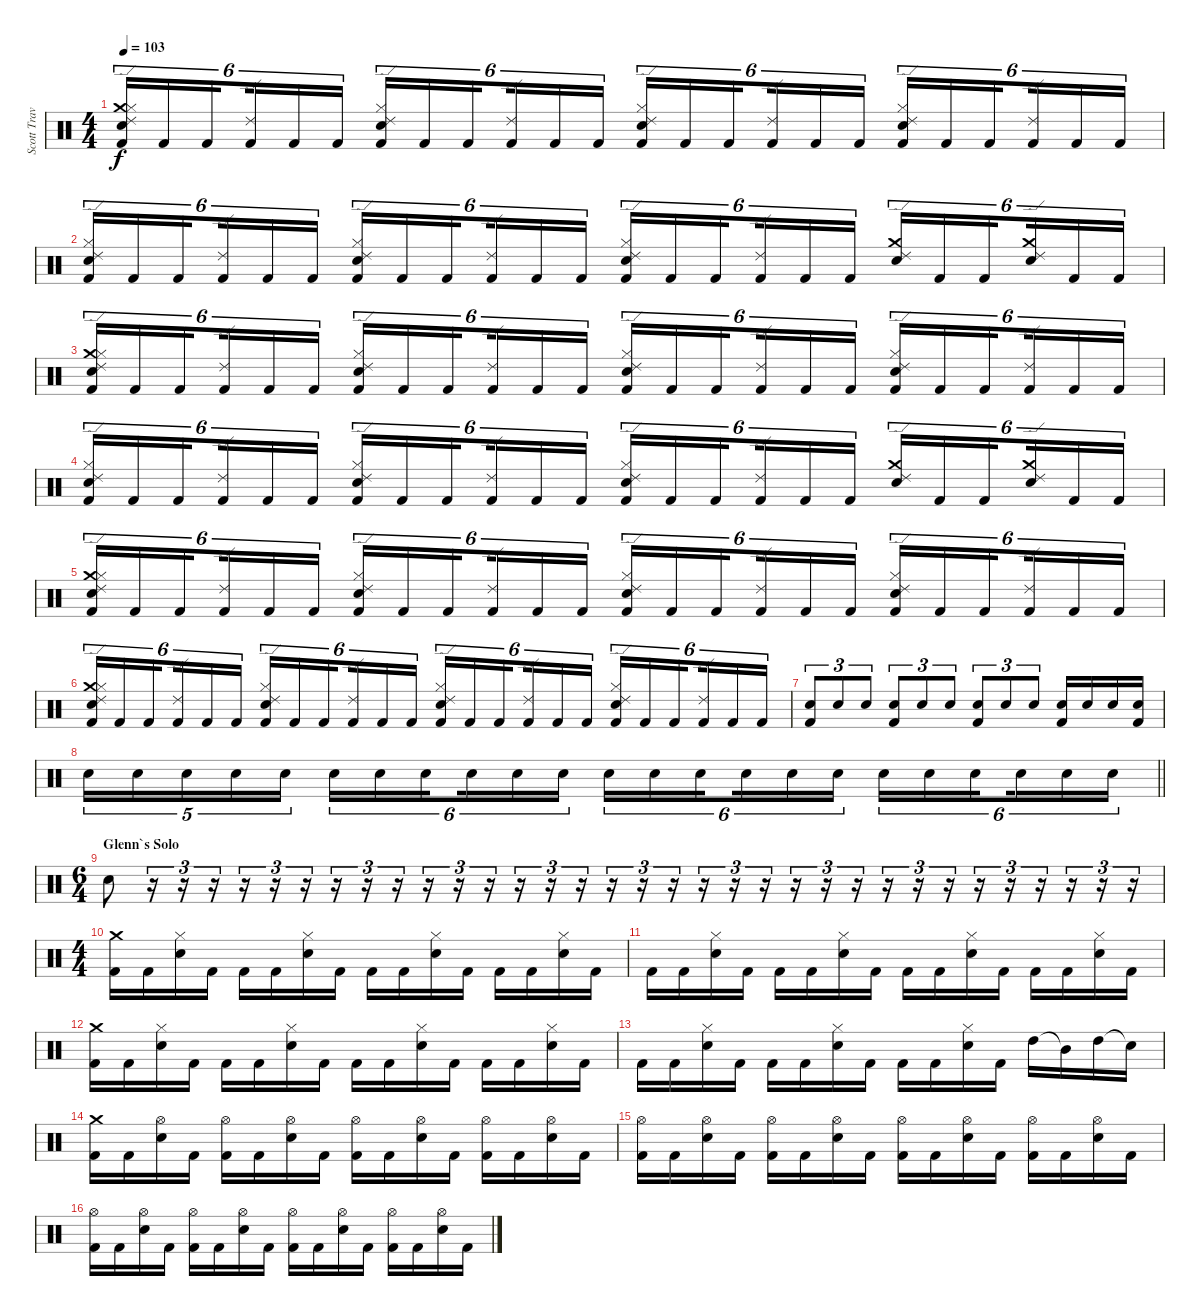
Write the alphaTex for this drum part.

\track ("Scott Travis" "Scott Trav") {instrument percussion}
\staff {score}
\articulation defaults
\ts (4 4)
\tempo 103
\clef neutral
\ks c
("Ride (edge) 2" "Crash medium (hit)" "Hi-Hat (closed)" "Snare (hit) 2" "Kick (hit) 2").16{tu (6 4) dy f} "Kick (hit) 2".16{tu (6 4)} "Kick (hit) 2".16{tu (6 4) beam splitsecondary} ("Ride (edge) 2" "Kick (hit) 2").16{tu (6 4)} "Kick (hit) 2".16{tu (6 4)} "Kick (hit) 2".16{tu (6 4)} ("Ride (edge) 2" "Hi-Hat (closed)" "Snare (hit) 2" "Kick (hit) 2").16{tu (6 4)} "Kick (hit) 2".16{tu (6 4)} "Kick (hit) 2".16{tu (6 4) beam splitsecondary} ("Ride (edge) 2" "Kick (hit) 2").16{tu (6 4)} "Kick (hit) 2".16{tu (6 4)} "Kick (hit) 2".16{tu (6 4)} ("Ride (edge) 2" "Hi-Hat (closed)" "Snare (hit) 2" "Kick (hit) 2").16{tu (6 4)} "Kick (hit) 2".16{tu (6 4)} "Kick (hit) 2".16{tu (6 4) beam splitsecondary} ("Ride (edge) 2" "Kick (hit) 2").16{tu (6 4)} "Kick (hit) 2".16{tu (6 4)} "Kick (hit) 2".16{tu (6 4)} ("Ride (edge) 2" "Hi-Hat (closed)" "Snare (hit) 2" "Kick (hit) 2").16{tu (6 4)} "Kick (hit) 2".16{tu (6 4)} "Kick (hit) 2".16{tu (6 4) beam splitsecondary} ("Ride (edge) 2" "Kick (hit) 2").16{tu (6 4)} "Kick (hit) 2".16{tu (6 4)} "Kick (hit) 2".16{tu (6 4)} |
("Ride (edge) 2" "Hi-Hat (closed)" "Snare (hit) 2" "Kick (hit) 2").16{tu (6 4)} "Kick (hit) 2".16{tu (6 4)} "Kick (hit) 2".16{tu (6 4) beam splitsecondary} ("Ride (edge) 2" "Kick (hit) 2").16{tu (6 4)} "Kick (hit) 2".16{tu (6 4)} "Kick (hit) 2".16{tu (6 4)} ("Ride (edge) 2" "Hi-Hat (closed)" "Snare (hit) 2" "Kick (hit) 2").16{tu (6 4)} "Kick (hit) 2".16{tu (6 4)} "Kick (hit) 2".16{tu (6 4) beam splitsecondary} ("Ride (edge) 2" "Kick (hit) 2").16{tu (6 4)} "Kick (hit) 2".16{tu (6 4)} "Kick (hit) 2".16{tu (6 4)} ("Ride (edge) 2" "Hi-Hat (closed)" "Snare (hit) 2" "Kick (hit) 2").16{tu (6 4)} "Kick (hit) 2".16{tu (6 4)} "Kick (hit) 2".16{tu (6 4) beam splitsecondary} ("Ride (edge) 2" "Kick (hit) 2").16{tu (6 4)} "Kick (hit) 2".16{tu (6 4)} "Kick (hit) 2".16{tu (6 4)} ("Ride (edge) 2" "Crash medium (hit)" "Snare (hit) 2").16{tu (6 4)} "Kick (hit) 2".16{tu (6 4)} "Kick (hit) 2".16{tu (6 4) beam splitsecondary} ("Ride (edge) 2" "Crash medium (hit)" "Snare (hit) 2").16{tu (6 4)} "Kick (hit) 2".16{tu (6 4)} "Kick (hit) 2".16{tu (6 4)} |
("Ride (edge) 2" "Crash medium (hit)" "Hi-Hat (closed)" "Snare (hit) 2" "Kick (hit) 2").16{tu (6 4)} "Kick (hit) 2".16{tu (6 4)} "Kick (hit) 2".16{tu (6 4) beam splitsecondary} ("Ride (edge) 2" "Kick (hit) 2").16{tu (6 4)} "Kick (hit) 2".16{tu (6 4)} "Kick (hit) 2".16{tu (6 4)} ("Ride (edge) 2" "Hi-Hat (closed)" "Snare (hit) 2" "Kick (hit) 2").16{tu (6 4)} "Kick (hit) 2".16{tu (6 4)} "Kick (hit) 2".16{tu (6 4) beam splitsecondary} ("Ride (edge) 2" "Kick (hit) 2").16{tu (6 4)} "Kick (hit) 2".16{tu (6 4)} "Kick (hit) 2".16{tu (6 4)} ("Ride (edge) 2" "Hi-Hat (closed)" "Snare (hit) 2" "Kick (hit) 2").16{tu (6 4)} "Kick (hit) 2".16{tu (6 4)} "Kick (hit) 2".16{tu (6 4) beam splitsecondary} ("Ride (edge) 2" "Kick (hit) 2").16{tu (6 4)} "Kick (hit) 2".16{tu (6 4)} "Kick (hit) 2".16{tu (6 4)} ("Ride (edge) 2" "Hi-Hat (closed)" "Snare (hit) 2" "Kick (hit) 2").16{tu (6 4)} "Kick (hit) 2".16{tu (6 4)} "Kick (hit) 2".16{tu (6 4) beam splitsecondary} ("Ride (edge) 2" "Kick (hit) 2").16{tu (6 4)} "Kick (hit) 2".16{tu (6 4)} "Kick (hit) 2".16{tu (6 4)} |
("Ride (edge) 2" "Hi-Hat (closed)" "Snare (hit) 2" "Kick (hit) 2").16{tu (6 4)} "Kick (hit) 2".16{tu (6 4)} "Kick (hit) 2".16{tu (6 4) beam splitsecondary} ("Ride (edge) 2" "Kick (hit) 2").16{tu (6 4)} "Kick (hit) 2".16{tu (6 4)} "Kick (hit) 2".16{tu (6 4)} ("Ride (edge) 2" "Hi-Hat (closed)" "Snare (hit) 2" "Kick (hit) 2").16{tu (6 4)} "Kick (hit) 2".16{tu (6 4)} "Kick (hit) 2".16{tu (6 4) beam splitsecondary} ("Ride (edge) 2" "Kick (hit) 2").16{tu (6 4)} "Kick (hit) 2".16{tu (6 4)} "Kick (hit) 2".16{tu (6 4)} ("Ride (edge) 2" "Hi-Hat (closed)" "Snare (hit) 2" "Kick (hit) 2").16{tu (6 4)} "Kick (hit) 2".16{tu (6 4)} "Kick (hit) 2".16{tu (6 4) beam splitsecondary} ("Ride (edge) 2" "Kick (hit) 2").16{tu (6 4)} "Kick (hit) 2".16{tu (6 4)} "Kick (hit) 2".16{tu (6 4)} ("Ride (edge) 2" "Crash medium (hit)" "Snare (hit) 2").16{tu (6 4)} "Kick (hit) 2".16{tu (6 4)} "Kick (hit) 2".16{tu (6 4) beam splitsecondary} ("Ride (edge) 2" "Crash medium (hit)" "Snare (hit) 2").16{tu (6 4)} "Kick (hit) 2".16{tu (6 4)} "Kick (hit) 2".16{tu (6 4)} |
("Ride (edge) 2" "Crash medium (hit)" "Hi-Hat (closed)" "Snare (hit) 2" "Kick (hit) 2").16{tu (6 4)} "Kick (hit) 2".16{tu (6 4)} "Kick (hit) 2".16{tu (6 4) beam splitsecondary} ("Ride (edge) 2" "Kick (hit) 2").16{tu (6 4)} "Kick (hit) 2".16{tu (6 4)} "Kick (hit) 2".16{tu (6 4)} ("Ride (edge) 2" "Hi-Hat (closed)" "Snare (hit) 2" "Kick (hit) 2").16{tu (6 4)} "Kick (hit) 2".16{tu (6 4)} "Kick (hit) 2".16{tu (6 4) beam splitsecondary} ("Ride (edge) 2" "Kick (hit) 2").16{tu (6 4)} "Kick (hit) 2".16{tu (6 4)} "Kick (hit) 2".16{tu (6 4)} ("Ride (edge) 2" "Hi-Hat (closed)" "Snare (hit) 2" "Kick (hit) 2").16{tu (6 4)} "Kick (hit) 2".16{tu (6 4)} "Kick (hit) 2".16{tu (6 4) beam splitsecondary} ("Ride (edge) 2" "Kick (hit) 2").16{tu (6 4)} "Kick (hit) 2".16{tu (6 4)} "Kick (hit) 2".16{tu (6 4)} ("Ride (edge) 2" "Hi-Hat (closed)" "Snare (hit) 2" "Kick (hit) 2").16{tu (6 4)} "Kick (hit) 2".16{tu (6 4)} "Kick (hit) 2".16{tu (6 4) beam splitsecondary} ("Ride (edge) 2" "Kick (hit) 2").16{tu (6 4)} "Kick (hit) 2".16{tu (6 4)} "Kick (hit) 2".16{tu (6 4)} |
("Ride (edge) 2" "Crash medium (hit)" "Hi-Hat (closed)" "Snare (hit) 2" "Kick (hit) 2").16{tu (6 4)} "Kick (hit) 2".16{tu (6 4)} "Kick (hit) 2".16{tu (6 4) beam splitsecondary} ("Ride (edge) 2" "Kick (hit) 2").16{tu (6 4)} "Kick (hit) 2".16{tu (6 4)} "Kick (hit) 2".16{tu (6 4)} ("Ride (edge) 2" "Hi-Hat (closed)" "Snare (hit) 2" "Kick (hit) 2").16{tu (6 4)} "Kick (hit) 2".16{tu (6 4)} "Kick (hit) 2".16{tu (6 4) beam splitsecondary} ("Ride (edge) 2" "Kick (hit) 2").16{tu (6 4)} "Kick (hit) 2".16{tu (6 4)} "Kick (hit) 2".16{tu (6 4)} ("Ride (edge) 2" "Hi-Hat (closed)" "Snare (hit) 2" "Kick (hit) 2").16{tu (6 4)} "Kick (hit) 2".16{tu (6 4)} "Kick (hit) 2".16{tu (6 4) beam splitsecondary} ("Ride (edge) 2" "Kick (hit) 2").16{tu (6 4)} "Kick (hit) 2".16{tu (6 4)} "Kick (hit) 2".16{tu (6 4)} ("Ride (edge) 2" "Hi-Hat (closed)" "Snare (hit) 2" "Kick (hit) 2").16{tu (6 4)} "Kick (hit) 2".16{tu (6 4)} "Kick (hit) 2".16{tu (6 4) beam splitsecondary} ("Ride (edge) 2" "Kick (hit) 2").16{tu (6 4)} "Kick (hit) 2".16{tu (6 4)} "Kick (hit) 2".16{tu (6 4)} |
("Kick (hit) 2" "Snare (hit) 2").8{tu (3 2)} "Snare (hit) 2".8{tu (3 2)} "Snare (hit) 2".8{tu (3 2)} ("Kick (hit) 2" "Snare (hit) 2").8{tu (3 2)} "Snare (hit) 2".8{tu (3 2)} "Snare (hit) 2".8{tu (3 2)} ("Kick (hit) 2" "Snare (hit) 2").8{tu (3 2)} "Snare (hit) 2".8{tu (3 2)} "Snare (hit) 2".8{tu (3 2)} ("Kick (hit) 2" "Snare (hit) 2").16 "Snare (hit) 2".16 "Snare (hit) 2".16 ("Kick (hit) 2" "Snare (hit) 2").16 |
\barLineRight lightlight "Snare (hit) 2".16{tu (5 4)} "Snare (hit) 2".16{tu (5 4)} "Snare (hit) 2".16{tu (5 4)} "Snare (hit) 2".16{tu (5 4)} "Snare (hit) 2".16{tu (5 4)} "Snare (hit) 2".16{tu (6 4)} "Snare (hit) 2".16{tu (6 4)} "Snare (hit) 2".16{tu (6 4) beam splitsecondary} "Snare (hit) 2".16{tu (6 4)} "Snare (hit) 2".16{tu (6 4)} "Snare (hit) 2".16{tu (6 4)} "Snare (hit) 2".16{tu (6 4)} "Snare (hit) 2".16{tu (6 4)} "Snare (hit) 2".16{tu (6 4) beam splitsecondary} "Snare (hit) 2".16{tu (6 4)} "Snare (hit) 2".16{tu (6 4)} "Snare (hit) 2".16{tu (6 4)} "Snare (hit) 2".16{tu (6 4)} "Snare (hit) 2".16{tu (6 4)} "Snare (hit) 2".16{tu (6 4) beam splitsecondary} "Snare (hit) 2".16{tu (6 4)} "Snare (hit) 2".16{tu (6 4)} "Snare (hit) 2".16{tu (6 4)}
|
\ts (6 4)
\section ("" "Glenn`s Solo")
"Snare (hit) 2".8 r.16{tu (3 2)} r.16{tu (3 2)} r.16{tu (3 2)} r.16{tu (3 2)} r.16{tu (3 2)} r.16{tu (3 2)} r.16{tu (3 2)} r.16{tu (3 2)} r.16{tu (3 2)} r.16{tu (3 2)} r.16{tu (3 2)} r.16{tu (3 2)} r.16{tu (3 2)} r.16{tu (3 2)} r.16{tu (3 2)} r.16{tu (3 2)} r.16{tu (3 2)} r.16{tu (3 2)} r.16{tu (3 2)} r.16{tu (3 2)} r.16{tu (3 2)} r.16{tu (3 2)} r.16{tu (3 2)} r.16{tu (3 2)} r.16{tu (3 2)} r.16{tu (3 2)} r.16{tu (3 2)} r.16{tu (3 2)} r.16{tu (3 2)} r.16{tu (3 2)} r.16{tu (3 2)} r.16{tu (3 2)} r.16{tu (3 2)} |
\ts (4 4)
("Crash medium (hit)" "Kick (hit) 2").16 "Kick (hit) 2".16 ("Hi-Hat (closed)" "Snare (hit) 2").16 "Kick (hit) 2".16 "Kick (hit) 2".16 "Kick (hit) 2".16 ("Hi-Hat (closed)" "Snare (hit) 2").16 "Kick (hit) 2".16 "Kick (hit) 2".16 "Kick (hit) 2".16 ("Hi-Hat (closed)" "Snare (hit) 2").16 "Kick (hit) 2".16 "Kick (hit) 2".16 "Kick (hit) 2".16 ("Hi-Hat (closed)" "Snare (hit) 2").16 "Kick (hit) 2".16 |
"Kick (hit) 2".16 "Kick (hit) 2".16 ("Hi-Hat (closed)" "Snare (hit) 2").16 "Kick (hit) 2".16 "Kick (hit) 2".16 "Kick (hit) 2".16 ("Hi-Hat (closed)" "Snare (hit) 2").16 "Kick (hit) 2".16 "Kick (hit) 2".16 "Kick (hit) 2".16 ("Hi-Hat (closed)" "Snare (hit) 2").16 "Kick (hit) 2".16 "Kick (hit) 2".16 "Kick (hit) 2".16 ("Hi-Hat (closed)" "Snare (hit) 2").16 "Kick (hit) 2".16 |
("Crash medium (hit)" "Kick (hit) 2").16 "Kick (hit) 2".16 ("Hi-Hat (closed)" "Snare (hit) 2").16 "Kick (hit) 2".16 "Kick (hit) 2".16 "Kick (hit) 2".16 ("Hi-Hat (closed)" "Snare (hit) 2").16 "Kick (hit) 2".16 "Kick (hit) 2".16 "Kick (hit) 2".16 ("Hi-Hat (closed)" "Snare (hit) 2").16 "Kick (hit) 2".16 "Kick (hit) 2".16 "Kick (hit) 2".16 ("Hi-Hat (closed)" "Snare (hit) 2").16 "Kick (hit) 2".16 |
"Kick (hit) 2".16 "Kick (hit) 2".16 ("Hi-Hat (closed)" "Snare (hit) 2").16 "Kick (hit) 2".16 "Kick (hit) 2".16 "Kick (hit) 2".16 ("Hi-Hat (closed)" "Snare (hit) 2").16 "Kick (hit) 2".16 "Kick (hit) 2".16 "Kick (hit) 2".16 ("Hi-Hat (closed)" "Snare (hit) 2").16 "Kick (hit) 2".16 "High Tom (hit)".16 "Mid Tom (hit)"{t}.16 "High Tom (hit)".16 "Snare (hit)"{t}.16 |
("Crash medium (hit)" "Kick (hit) 2").16 "Kick (hit) 2".16 ("Hi-Hat (open)" "Snare (hit) 2").16 "Kick (hit) 2".16 ("Hi-Hat (open)" "Kick (hit) 2").16 "Kick (hit) 2".16 ("Hi-Hat (open)" "Snare (hit) 2").16 "Kick (hit) 2".16 ("Hi-Hat (open)" "Kick (hit) 2").16 "Kick (hit) 2".16 ("Hi-Hat (open)" "Snare (hit) 2").16 "Kick (hit) 2".16 ("Hi-Hat (open)" "Kick (hit) 2").16 "Kick (hit) 2".16 ("Hi-Hat (open)" "Snare (hit) 2").16 "Kick (hit) 2".16 |
("Hi-Hat (open)" "Kick (hit) 2").16 "Kick (hit) 2".16 ("Hi-Hat (open)" "Snare (hit) 2").16 "Kick (hit) 2".16 ("Hi-Hat (open)" "Kick (hit) 2").16 "Kick (hit) 2".16 ("Hi-Hat (open)" "Snare (hit) 2").16 "Kick (hit) 2".16 ("Hi-Hat (open)" "Kick (hit) 2").16 "Kick (hit) 2".16 ("Hi-Hat (open)" "Snare (hit) 2").16 "Kick (hit) 2".16 ("Hi-Hat (open)" "Kick (hit) 2").16 "Kick (hit) 2".16 ("Hi-Hat (open)" "Snare (hit) 2").16 "Kick (hit) 2".16 |
("Hi-Hat (open)" "Kick (hit) 2").16 "Kick (hit) 2".16 ("Hi-Hat (open)" "Snare (hit) 2").16 "Kick (hit) 2".16 ("Hi-Hat (open)" "Kick (hit) 2").16 "Kick (hit) 2".16 ("Hi-Hat (open)" "Snare (hit) 2").16 "Kick (hit) 2".16 ("Hi-Hat (open)" "Kick (hit) 2").16 "Kick (hit) 2".16 ("Hi-Hat (open)" "Snare (hit) 2").16 "Kick (hit) 2".16 ("Hi-Hat (open)" "Kick (hit) 2").16 "Kick (hit) 2".16 ("Hi-Hat (open)" "Snare (hit) 2").16 "Kick (hit) 2".16
